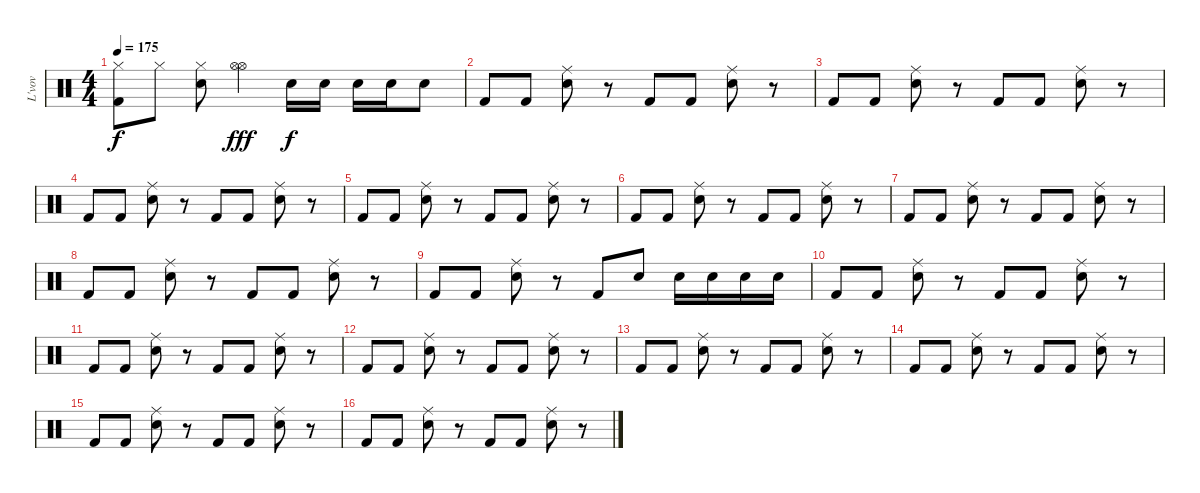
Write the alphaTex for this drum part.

\track ("L'vov" "L'vov") {instrument percussion}
\staff {score}
\articulation defaults
\ts (4 4)
\tempo 175
\clef neutral
\ks c
("Hi-Hat (closed)" "Kick (hit) 2").8{dy f} "Hi-Hat (closed)".8 ("Hi-Hat (closed)" "Snare (hit) 2").8 ("Hi-Hat (open)" "Hi-Hat (open)").4{dy fff} "Snare (hit) 2".16{dy f} "Snare (hit) 2".16 "Snare (hit) 2".16 "Snare (hit) 2".16 "Snare (hit) 2".8 |
"Kick (hit) 2".8 "Kick (hit) 2".8 ("Snare (hit) 2" "Ride (middle)").8 r.8 "Kick (hit) 2".8 "Kick (hit) 2".8 ("Snare (hit) 2" "Ride (middle)").8 r.8 |
"Kick (hit) 2".8 "Kick (hit) 2".8 ("Snare (hit) 2" "Ride (middle)").8 r.8 "Kick (hit) 2".8 "Kick (hit) 2".8 ("Snare (hit) 2" "Ride (middle)").8 r.8 |
"Kick (hit) 2".8 "Kick (hit) 2".8 ("Snare (hit) 2" "Ride (middle)").8 r.8 "Kick (hit) 2".8 "Kick (hit) 2".8 ("Snare (hit) 2" "Ride (middle)").8 r.8 |
"Kick (hit) 2".8 "Kick (hit) 2".8 ("Snare (hit) 2" "Ride (middle)").8 r.8 "Kick (hit) 2".8 "Kick (hit) 2".8 ("Snare (hit) 2" "Ride (middle)").8 r.8 |
"Kick (hit) 2".8 "Kick (hit) 2".8 ("Snare (hit) 2" "Ride (middle)").8 r.8 "Kick (hit) 2".8 "Kick (hit) 2".8 ("Snare (hit) 2" "Ride (middle)").8 r.8 |
"Kick (hit) 2".8 "Kick (hit) 2".8 ("Snare (hit) 2" "Ride (middle)").8 r.8 "Kick (hit) 2".8 "Kick (hit) 2".8 ("Snare (hit) 2" "Ride (middle)").8 r.8 |
"Kick (hit) 2".8 "Kick (hit) 2".8 ("Snare (hit) 2" "Ride (middle)").8 r.8 "Kick (hit) 2".8 "Kick (hit) 2".8 ("Snare (hit) 2" "Ride (middle)").8 r.8 |
"Kick (hit) 2".8 "Kick (hit) 2".8 ("Snare (hit) 2" "Ride (middle)").8 r.8 "Kick (hit) 2".8 "Electric Snare (hit)".8 "Snare (hit) 2".16 "Snare (hit) 2".16 "Snare (hit) 2".16 "Snare (hit) 2".16 |
"Kick (hit) 2".8 "Kick (hit) 2".8 ("Snare (hit) 2" "Ride (middle)").8 r.8 "Kick (hit) 2".8 "Kick (hit) 2".8 ("Snare (hit) 2" "Ride (middle)").8 r.8 |
"Kick (hit) 2".8 "Kick (hit) 2".8 ("Snare (hit) 2" "Ride (middle)").8 r.8 "Kick (hit) 2".8 "Kick (hit) 2".8 ("Snare (hit) 2" "Ride (middle)").8 r.8 |
"Kick (hit) 2".8 "Kick (hit) 2".8 ("Snare (hit) 2" "Ride (middle)").8 r.8 "Kick (hit) 2".8 "Kick (hit) 2".8 ("Snare (hit) 2" "Ride (middle)").8 r.8 |
"Kick (hit) 2".8 "Kick (hit) 2".8 ("Snare (hit) 2" "Ride (middle)").8 r.8 "Kick (hit) 2".8 "Kick (hit) 2".8 ("Snare (hit) 2" "Ride (middle)").8 r.8 |
"Kick (hit) 2".8 "Kick (hit) 2".8 ("Snare (hit) 2" "Ride (middle)").8 r.8 "Kick (hit) 2".8 "Kick (hit) 2".8 ("Snare (hit) 2" "Ride (middle)").8 r.8 |
"Kick (hit) 2".8 "Kick (hit) 2".8 ("Snare (hit) 2" "Ride (middle)").8 r.8 "Kick (hit) 2".8 "Kick (hit) 2".8 ("Snare (hit) 2" "Ride (middle)").8 r.8 |
"Kick (hit) 2".8 "Kick (hit) 2".8 ("Snare (hit) 2" "Ride (middle)").8 r.8 "Kick (hit) 2".8 "Kick (hit) 2".8 ("Snare (hit) 2" "Ride (middle)").8 r.8
